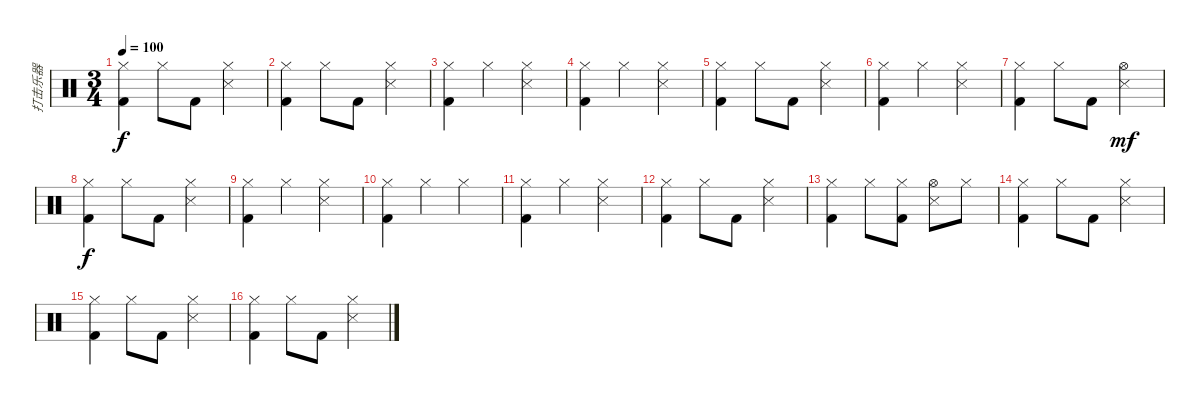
\track ("打击乐器" "打击乐器") {instrument percussion}
\staff {score}
\articulation defaults
\ts (3 4)
\tempo 100
\clef neutral
\ks c
("Hi-Hat (closed)" "Kick (hit) 2").4{dy f} "Hi-Hat (closed)".8 "Kick (hit) 2".8 ("Hi-Hat (closed)" "Snare (side stick) 3").4 |
("Hi-Hat (closed)" "Kick (hit) 2").4 "Hi-Hat (closed)".8 "Kick (hit) 2".8 ("Hi-Hat (closed)" "Snare (side stick) 3").4 |
("Hi-Hat (closed)" "Kick (hit) 2").4 "Hi-Hat (closed)".4 ("Hi-Hat (closed)" "Snare (side stick) 3").4 |
("Hi-Hat (closed)" "Kick (hit) 2").4 "Hi-Hat (closed)".4 ("Hi-Hat (closed)" "Snare (side stick) 3").4 |
("Hi-Hat (closed)" "Kick (hit) 2").4 "Hi-Hat (closed)".8 "Kick (hit) 2".8 ("Hi-Hat (closed)" "Snare (side stick) 3").4 |
("Hi-Hat (closed)" "Kick (hit) 2").4 "Hi-Hat (closed)".4 ("Hi-Hat (closed)" "Snare (side stick) 3").4 |
("Hi-Hat (closed)" "Kick (hit) 2").4 "Hi-Hat (closed)".8 "Kick (hit) 2".8 ("Hi-Hat (open)" "Snare (side stick) 3").4{dy mf} |
("Hi-Hat (closed)" "Kick (hit) 2").4{dy f} "Hi-Hat (closed)".8 "Kick (hit) 2".8 ("Hi-Hat (closed)" "Snare (side stick) 3").4 |
("Hi-Hat (closed)" "Kick (hit) 2").4 "Hi-Hat (closed)".4 ("Hi-Hat (closed)" "Snare (side stick) 3").4 |
("Hi-Hat (closed)" "Kick (hit) 2").4 "Hi-Hat (closed)".4 "Hi-Hat (closed)".4 |
("Hi-Hat (closed)" "Kick (hit) 2").4 "Hi-Hat (closed)".4 ("Hi-Hat (closed)" "Snare (side stick) 3").4 |
("Hi-Hat (closed)" "Kick (hit) 2").4 "Hi-Hat (closed)".8 "Kick (hit) 2".8 ("Hi-Hat (closed)" "Snare (side stick) 3").4 |
("Hi-Hat (closed)" "Kick (hit) 2").4 "Hi-Hat (closed)".8 ("Hi-Hat (closed)" "Kick (hit) 2").8 ("Hi-Hat (open)" "Snare (side stick) 3").8 "Hi-Hat (closed)".8 |
("Hi-Hat (closed)" "Kick (hit) 2").4 "Hi-Hat (closed)".8 "Kick (hit) 2".8 ("Hi-Hat (closed)" "Snare (side stick) 3").4 |
("Hi-Hat (closed)" "Kick (hit) 2").4 "Hi-Hat (closed)".8 "Kick (hit) 2".8 ("Hi-Hat (closed)" "Snare (side stick) 3").4 |
("Hi-Hat (closed)" "Kick (hit) 2").4 "Hi-Hat (closed)".8 "Kick (hit) 2".8 ("Hi-Hat (closed)" "Snare (side stick) 3").4
